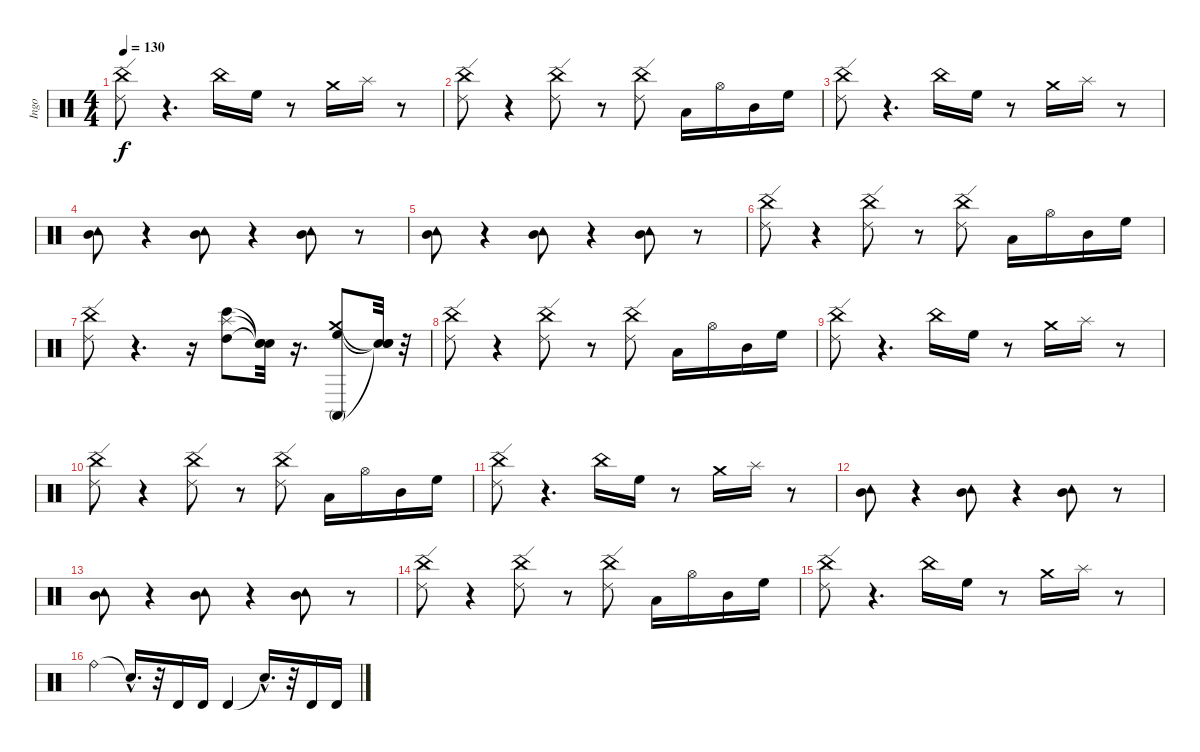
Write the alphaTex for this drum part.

\track ("Ingo" "Ingo") {instrument percussion}
\staff {score}
\articulation defaults
\ts (4 4)
\tempo 130
\clef neutral
\ks c
("Ride (edge) 2" "China (hit)").8{dy f} r.4{d} "China (hit)".16 "High Floor Tom (hit)".16 r.8 "Crash medium (hit)".16 "Splash (hit)".16 r.8 |
("Ride (edge) 2" "China (hit)").8 r.4 ("Ride (edge) 2" "China (hit)").8 r.8 ("Ride (edge) 2" "China (hit)").8 "Low Tom (hit)".16 "Hi-Hat (open)".16 "Mid Tom (hit)".16 "High Floor Tom (hit)".16 |
("Ride (edge) 2" "China (hit)").8 r.4{d} "China (hit)".16 "High Floor Tom (hit)".16 r.8 "Crash medium (hit)".16 "Splash (hit)".16 r.8 |
("Mid Tom (hit)" "Tambourine (hit)").8 r.4 ("Mid Tom (hit)" "Tambourine (hit)").8 r.4 ("Mid Tom (hit)" "Tambourine (hit)").8 r.8 |
("Mid Tom (hit)" "Tambourine (hit)").8 r.4 ("Mid Tom (hit)" "Tambourine (hit)").8 r.4 ("Mid Tom (hit)" "Tambourine (hit)").8 r.8 |
("Ride (edge) 2" "China (hit)").8 r.4 ("Ride (edge) 2" "China (hit)").8 r.8 ("Ride (edge) 2" "China (hit)").8 "Low Tom (hit)".16 "Hi-Hat (open)".16 "Mid Tom (hit)".16 "High Floor Tom (hit)".16 |
("Ride (edge) 2" "China (hit)").8 r.4{d} r.16 ("Bongo High (hit)" "High Tom (hit)" "Splash (hit)").8 ("Snare (hit)"{t} "Snare (hit)"{t} "Snare (hit)"{t}).32 r.16{d} ("Conga high (mute)" "High Floor Tom (hit)" "Crash medium (hit)").8 ("Snare (hit)"{t} "Snare (hit)"{t} "Snare (hit)"{t}).32 r.32 |
("Ride (edge) 2" "China (hit)").8 r.4 ("Ride (edge) 2" "China (hit)").8 r.8 ("Ride (edge) 2" "China (hit)").8 "Low Tom (hit)".16 "Hi-Hat (open)".16 "Mid Tom (hit)".16 "High Floor Tom (hit)".16 |
("Ride (edge) 2" "China (hit)").8 r.4{d} "China (hit)".16 "High Floor Tom (hit)".16 r.8 "Crash medium (hit)".16 "Splash (hit)".16 r.8 |
("Ride (edge) 2" "China (hit)").8 r.4 ("Ride (edge) 2" "China (hit)").8 r.8 ("Ride (edge) 2" "China (hit)").8 "Low Tom (hit)".16 "Hi-Hat (open)".16 "Mid Tom (hit)".16 "High Floor Tom (hit)".16 |
("Ride (edge) 2" "China (hit)").8 r.4{d} "China (hit)".16 "High Floor Tom (hit)".16 r.8 "Crash medium (hit)".16 "Splash (hit)".16 r.8 |
("Mid Tom (hit)" "Tambourine (hit)").8 r.4 ("Mid Tom (hit)" "Tambourine (hit)").8 r.4 ("Mid Tom (hit)" "Tambourine (hit)").8 r.8 |
("Mid Tom (hit)" "Tambourine (hit)").8 r.4 ("Mid Tom (hit)" "Tambourine (hit)").8 r.4 ("Mid Tom (hit)" "Tambourine (hit)").8 r.8 |
("Ride (edge) 2" "China (hit)").8 r.4 ("Ride (edge) 2" "China (hit)").8 r.8 ("Ride (edge) 2" "China (hit)").8 "Low Tom (hit)".16 "Hi-Hat (open)".16 "Mid Tom (hit)".16 "High Floor Tom (hit)".16 |
("Ride (edge) 2" "China (hit)").8 r.4{d} "China (hit)".16 "High Floor Tom (hit)".16 r.8 "Crash medium (hit)".16 "Splash (hit)".16 r.8 |
"Ride (bell)".4 "Snare (hit)"{hac t}.16{d} r.32 "Timbale high (hit)".16 "Timbale high (hit)".16 "Timbale high (hit)".4 "Snare (hit)"{hac t}.16{d} r.32 "Timbale high (hit)".16 "Timbale high (hit)".16
